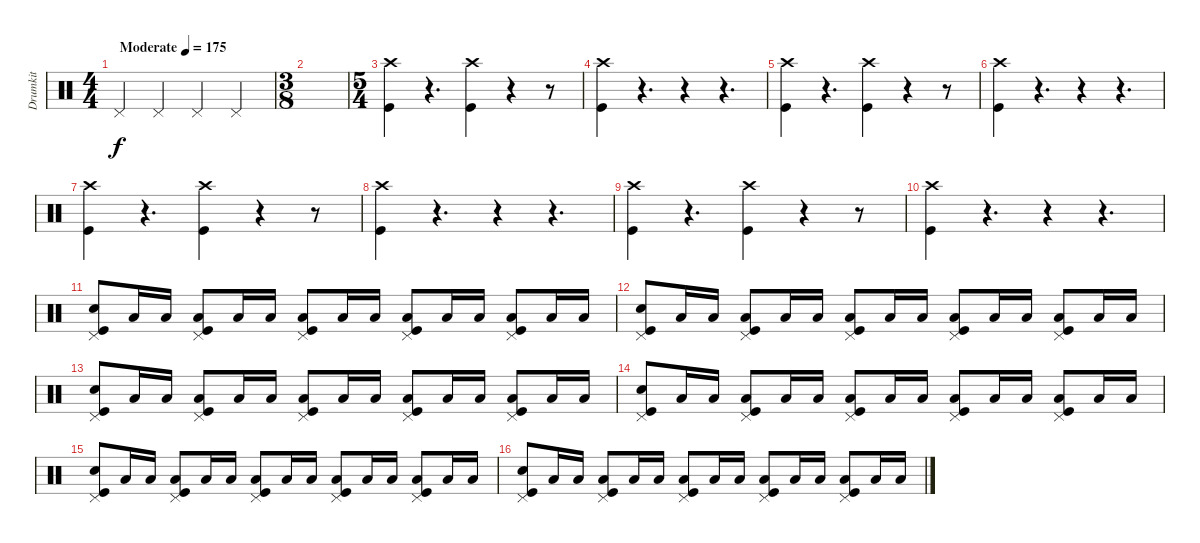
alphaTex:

\track ("Drumkit" "Drumkit") {instrument percussion}
\staff {score}
\articulation defaults
\ts (4 4)
\tempo (175 "Moderate")
\clef neutral
\ks c "Pedal Hi-Hat (hit)".4{dy f} "Pedal Hi-Hat (hit)".4 "Pedal Hi-Hat (hit)".4 "Pedal Hi-Hat (hit)".4
|
\ts (3 8)
|
\ts (5 4)
("Kick (hit)" "Crash high (hit)").4 r.4{d} ("Kick (hit)" "Crash high (hit)").4 r.4 r.8 |
("Kick (hit)" "Crash high (hit)").4 r.4{d} r.4 r.4{d} |
("Kick (hit)" "Crash high (hit)").4 r.4{d} ("Kick (hit)" "Crash high (hit)").4 r.4 r.8 |
("Kick (hit)" "Crash high (hit)").4 r.4{d} r.4 r.4{d} |
("Kick (hit)" "Crash high (hit)").4 r.4{d} ("Kick (hit)" "Crash high (hit)").4 r.4 r.8 |
("Kick (hit)" "Crash high (hit)").4 r.4{d} r.4 r.4{d} |
("Kick (hit)" "Crash high (hit)").4 r.4{d} ("Kick (hit)" "Crash high (hit)").4 r.4 r.8 |
("Kick (hit)" "Crash high (hit)").4 r.4{d} r.4 r.4{d} |
("Pedal Hi-Hat (hit)" "Kick (hit)" "Snare (hit) 2").8 "Low Floor Tom (hit)".16 "Low Floor Tom (hit)".16 ("Pedal Hi-Hat (hit)" "Kick (hit)" "Low Floor Tom (hit)").8 "Low Floor Tom (hit)".16 "Low Floor Tom (hit)".16 ("Pedal Hi-Hat (hit)" "Kick (hit)" "Low Floor Tom (hit)").8 "Low Floor Tom (hit)".16 "Low Floor Tom (hit)".16 ("Pedal Hi-Hat (hit)" "Kick (hit)" "Low Floor Tom (hit)").8 "Low Floor Tom (hit)".16 "Low Floor Tom (hit)".16 ("Pedal Hi-Hat (hit)" "Kick (hit)" "Low Floor Tom (hit)").8 "Low Floor Tom (hit)".16 "Low Floor Tom (hit)".16 |
("Pedal Hi-Hat (hit)" "Kick (hit)" "Snare (hit) 2").8 "Low Floor Tom (hit)".16 "Low Floor Tom (hit)".16 ("Pedal Hi-Hat (hit)" "Kick (hit)" "Low Floor Tom (hit)").8 "Low Floor Tom (hit)".16 "Low Floor Tom (hit)".16 ("Pedal Hi-Hat (hit)" "Kick (hit)" "Low Floor Tom (hit)").8 "Low Floor Tom (hit)".16 "Low Floor Tom (hit)".16 ("Pedal Hi-Hat (hit)" "Kick (hit)" "Low Floor Tom (hit)").8 "Low Floor Tom (hit)".16 "Low Floor Tom (hit)".16 ("Pedal Hi-Hat (hit)" "Kick (hit)" "Low Floor Tom (hit)").8 "Low Floor Tom (hit)".16 "Low Floor Tom (hit)".16 |
("Pedal Hi-Hat (hit)" "Kick (hit)" "Snare (hit) 2").8 "Low Floor Tom (hit)".16 "Low Floor Tom (hit)".16 ("Pedal Hi-Hat (hit)" "Kick (hit)" "Low Floor Tom (hit)").8 "Low Floor Tom (hit)".16 "Low Floor Tom (hit)".16 ("Pedal Hi-Hat (hit)" "Kick (hit)" "Low Floor Tom (hit)").8 "Low Floor Tom (hit)".16 "Low Floor Tom (hit)".16 ("Pedal Hi-Hat (hit)" "Kick (hit)" "Low Floor Tom (hit)").8 "Low Floor Tom (hit)".16 "Low Floor Tom (hit)".16 ("Pedal Hi-Hat (hit)" "Kick (hit)" "Low Floor Tom (hit)").8 "Low Floor Tom (hit)".16 "Low Floor Tom (hit)".16 |
("Pedal Hi-Hat (hit)" "Kick (hit)" "Snare (hit) 2").8 "Low Floor Tom (hit)".16 "Low Floor Tom (hit)".16 ("Pedal Hi-Hat (hit)" "Kick (hit)" "Low Floor Tom (hit)").8 "Low Floor Tom (hit)".16 "Low Floor Tom (hit)".16 ("Pedal Hi-Hat (hit)" "Kick (hit)" "Low Floor Tom (hit)").8 "Low Floor Tom (hit)".16 "Low Floor Tom (hit)".16 ("Pedal Hi-Hat (hit)" "Kick (hit)" "Low Floor Tom (hit)").8 "Low Floor Tom (hit)".16 "Low Floor Tom (hit)".16 ("Pedal Hi-Hat (hit)" "Kick (hit)" "Low Floor Tom (hit)").8 "Low Floor Tom (hit)".16 "Low Floor Tom (hit)".16 |
("Pedal Hi-Hat (hit)" "Kick (hit)" "Snare (hit) 2").8 "Low Floor Tom (hit)".16 "Low Floor Tom (hit)".16 ("Pedal Hi-Hat (hit)" "Kick (hit)" "Low Floor Tom (hit)").8 "Low Floor Tom (hit)".16 "Low Floor Tom (hit)".16 ("Pedal Hi-Hat (hit)" "Kick (hit)" "Low Floor Tom (hit)").8 "Low Floor Tom (hit)".16 "Low Floor Tom (hit)".16 ("Pedal Hi-Hat (hit)" "Kick (hit)" "Low Floor Tom (hit)").8 "Low Floor Tom (hit)".16 "Low Floor Tom (hit)".16 ("Pedal Hi-Hat (hit)" "Kick (hit)" "Low Floor Tom (hit)").8 "Low Floor Tom (hit)".16 "Low Floor Tom (hit)".16 |
("Pedal Hi-Hat (hit)" "Kick (hit)" "Snare (hit) 2").8 "Low Floor Tom (hit)".16 "Low Floor Tom (hit)".16 ("Pedal Hi-Hat (hit)" "Kick (hit)" "Low Floor Tom (hit)").8 "Low Floor Tom (hit)".16 "Low Floor Tom (hit)".16 ("Pedal Hi-Hat (hit)" "Kick (hit)" "Low Floor Tom (hit)").8 "Low Floor Tom (hit)".16 "Low Floor Tom (hit)".16 ("Pedal Hi-Hat (hit)" "Kick (hit)" "Low Floor Tom (hit)").8 "Low Floor Tom (hit)".16 "Low Floor Tom (hit)".16 ("Pedal Hi-Hat (hit)" "Kick (hit)" "Low Floor Tom (hit)").8 "Low Floor Tom (hit)".16 "Low Floor Tom (hit)".16
